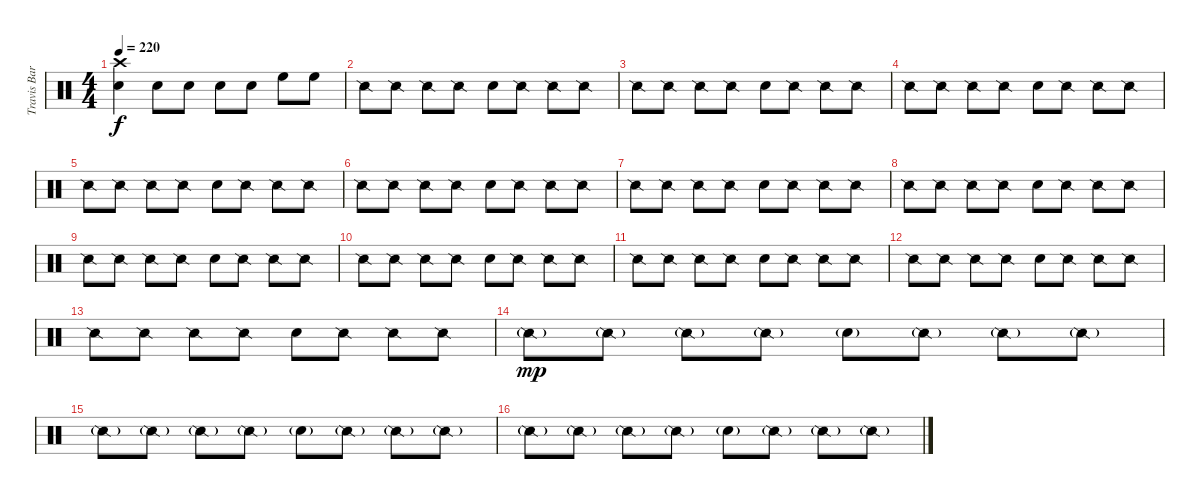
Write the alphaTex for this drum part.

\track ("Travis Barker" "Travis Bar") {instrument percussion}
\staff {score}
\articulation defaults
\ts (4 4)
\tempo 220
\clef neutral
\ks c
("Crash high (hit)" "Snare (hit) 2").4{dy f} "Snare (hit) 2".8 "Snare (hit) 2".8 "Snare (hit) 2".8 "Snare (hit) 2".8 "High Floor Tom (hit)".8 "High Floor Tom (hit)".8 |
"Snare (side stick) 2".8 "Snare (side stick) 2".8 "Snare (side stick) 2".8 "Snare (side stick) 2".8 "Electric Snare (hit)".8 "Snare (side stick) 2".8 "Snare (side stick) 2".8 "Snare (side stick) 2".8 |
"Snare (side stick) 2".8 "Snare (side stick) 2".8 "Snare (side stick) 2".8 "Snare (side stick) 2".8 "Electric Snare (hit)".8 "Snare (side stick) 2".8 "Snare (side stick) 2".8 "Snare (side stick) 2".8 |
"Snare (side stick) 2".8 "Snare (side stick) 2".8 "Snare (side stick) 2".8 "Snare (side stick) 2".8 "Electric Snare (hit)".8 "Snare (side stick) 2".8 "Snare (side stick) 2".8 "Snare (side stick) 2".8 |
"Snare (side stick) 2".8 "Snare (side stick) 2".8 "Snare (side stick) 2".8 "Snare (side stick) 2".8 "Electric Snare (hit)".8 "Snare (side stick) 2".8 "Snare (side stick) 2".8 "Snare (side stick) 2".8 |
"Snare (side stick) 2".8 "Snare (side stick) 2".8 "Snare (side stick) 2".8 "Snare (side stick) 2".8 "Electric Snare (hit)".8 "Snare (side stick) 2".8 "Snare (side stick) 2".8 "Snare (side stick) 2".8 |
"Snare (side stick) 2".8 "Snare (side stick) 2".8 "Snare (side stick) 2".8 "Snare (side stick) 2".8 "Electric Snare (hit)".8 "Snare (side stick) 2".8 "Snare (side stick) 2".8 "Snare (side stick) 2".8 |
"Snare (side stick) 2".8 "Snare (side stick) 2".8 "Snare (side stick) 2".8 "Snare (side stick) 2".8 "Electric Snare (hit)".8 "Snare (side stick) 2".8 "Snare (side stick) 2".8 "Snare (side stick) 2".8 |
"Snare (side stick) 2".8 "Snare (side stick) 2".8 "Snare (side stick) 2".8 "Snare (side stick) 2".8 "Electric Snare (hit)".8 "Snare (side stick) 2".8 "Snare (side stick) 2".8 "Snare (side stick) 2".8 |
"Snare (side stick) 2".8 "Snare (side stick) 2".8 "Snare (side stick) 2".8 "Snare (side stick) 2".8 "Electric Snare (hit)".8 "Snare (side stick) 2".8 "Snare (side stick) 2".8 "Snare (side stick) 2".8 |
"Snare (side stick) 2".8 "Snare (side stick) 2".8 "Snare (side stick) 2".8 "Snare (side stick) 2".8 "Electric Snare (hit)".8 "Snare (side stick) 2".8 "Snare (side stick) 2".8 "Snare (side stick) 2".8 |
"Snare (side stick) 2".8 "Snare (side stick) 2".8 "Snare (side stick) 2".8 "Snare (side stick) 2".8 "Electric Snare (hit)".8 "Snare (side stick) 2".8 "Snare (side stick) 2".8 "Snare (side stick) 2".8 |
"Snare (side stick) 2".8 "Snare (side stick) 2".8 "Snare (side stick) 2".8 "Snare (side stick) 2".8 "Electric Snare (hit)".8 "Snare (side stick) 2".8 "Snare (side stick) 2".8 "Snare (side stick) 2".8 |
"Snare (side stick) 2"{g}.8{dy mp} "Snare (side stick) 2"{g}.8 "Snare (side stick) 2"{g}.8 "Snare (side stick) 2"{g}.8 "Electric Snare (hit)"{g}.8 "Snare (side stick) 2"{g}.8 "Snare (side stick) 2"{g}.8 "Snare (side stick) 2"{g}.8 |
"Snare (side stick) 2"{g}.8 "Snare (side stick) 2"{g}.8 "Snare (side stick) 2"{g}.8 "Snare (side stick) 2"{g}.8 "Electric Snare (hit)"{g}.8 "Snare (side stick) 2"{g}.8 "Snare (side stick) 2"{g}.8 "Snare (side stick) 2"{g}.8 |
"Snare (side stick) 2"{g}.8 "Snare (side stick) 2"{g}.8 "Snare (side stick) 2"{g}.8 "Snare (side stick) 2"{g}.8 "Electric Snare (hit)"{g}.8 "Snare (side stick) 2"{g}.8 "Snare (side stick) 2"{g}.8 "Snare (side stick) 2"{g}.8
